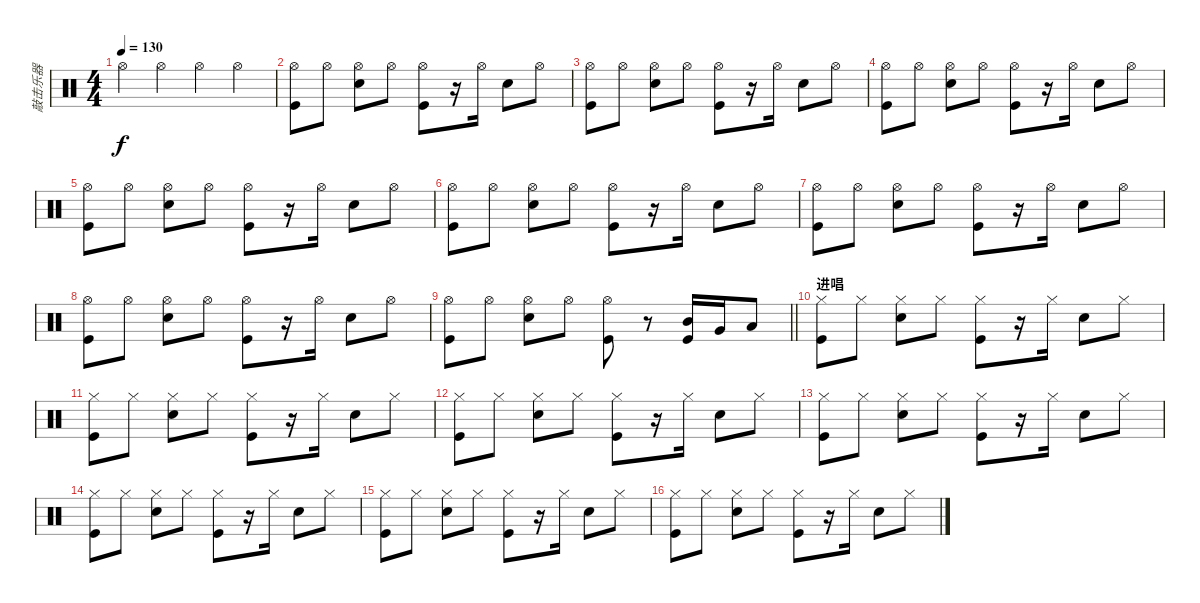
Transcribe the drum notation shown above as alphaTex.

\track ("敲击乐器" "敲击乐器") {instrument percussion}
\staff {score}
\articulation defaults
\ts (4 4)
\tempo 130
\clef neutral
\ks c "Hi-Hat (open)".4{dy f} "Hi-Hat (open)".4 "Hi-Hat (open)".4 "Hi-Hat (open)".4
|
("Hi-Hat (open)" "Kick (hit)").8 "Hi-Hat (open)".8 ("Hi-Hat (open)" "Snare (hit) 2").8 "Hi-Hat (open)".8 ("Hi-Hat (open)" "Kick (hit)").8 r.16 "Hi-Hat (open)".16 "Snare (hit) 2".8 "Hi-Hat (open)".8 |
("Hi-Hat (open)" "Kick (hit)").8 "Hi-Hat (open)".8 ("Hi-Hat (open)" "Snare (hit) 2").8 "Hi-Hat (open)".8 ("Hi-Hat (open)" "Kick (hit)").8 r.16 "Hi-Hat (open)".16 "Snare (hit) 2".8 "Hi-Hat (open)".8 |
("Hi-Hat (open)" "Kick (hit)").8 "Hi-Hat (open)".8 ("Hi-Hat (open)" "Snare (hit) 2").8 "Hi-Hat (open)".8 ("Hi-Hat (open)" "Kick (hit)").8 r.16 "Hi-Hat (open)".16 "Snare (hit) 2".8 "Hi-Hat (open)".8 |
("Hi-Hat (open)" "Kick (hit)").8 "Hi-Hat (open)".8 ("Hi-Hat (open)" "Snare (hit) 2").8 "Hi-Hat (open)".8 ("Hi-Hat (open)" "Kick (hit)").8 r.16 "Hi-Hat (open)".16 "Snare (hit) 2".8 "Hi-Hat (open)".8 |
("Hi-Hat (open)" "Kick (hit)").8 "Hi-Hat (open)".8 ("Hi-Hat (open)" "Snare (hit) 2").8 "Hi-Hat (open)".8 ("Hi-Hat (open)" "Kick (hit)").8 r.16 "Hi-Hat (open)".16 "Snare (hit) 2".8 "Hi-Hat (open)".8 |
("Hi-Hat (open)" "Kick (hit)").8 "Hi-Hat (open)".8 ("Hi-Hat (open)" "Snare (hit) 2").8 "Hi-Hat (open)".8 ("Hi-Hat (open)" "Kick (hit)").8 r.16 "Hi-Hat (open)".16 "Snare (hit) 2".8 "Hi-Hat (open)".8 |
("Hi-Hat (open)" "Kick (hit)").8 "Hi-Hat (open)".8 ("Hi-Hat (open)" "Snare (hit) 2").8 "Hi-Hat (open)".8 ("Hi-Hat (open)" "Kick (hit)").8 r.16 "Hi-Hat (open)".16 "Snare (hit) 2".8 "Hi-Hat (open)".8 |
\barLineRight lightlight
("Hi-Hat (open)" "Kick (hit)").8 "Hi-Hat (open)".8 ("Hi-Hat (open)" "Snare (hit) 2").8 "Hi-Hat (open)".8 ("Hi-Hat (open)" "Kick (hit)").8 r.8 ("Mid Tom (hit)" "Kick (hit)").16 "Very Low Tom (hit)".16 "Low Floor Tom (hit)".8 |
\section ("" "进唱")
("Hi-Hat (closed)" "Kick (hit)").8 "Hi-Hat (closed)".8 ("Hi-Hat (closed)" "Snare (hit) 2").8 "Hi-Hat (closed)".8 ("Hi-Hat (closed)" "Kick (hit)").8 r.16 "Hi-Hat (closed)".16 "Snare (hit) 2".8 "Hi-Hat (closed)".8 |
("Hi-Hat (closed)" "Kick (hit)").8 "Hi-Hat (closed)".8 ("Hi-Hat (closed)" "Snare (hit) 2").8 "Hi-Hat (closed)".8 ("Hi-Hat (closed)" "Kick (hit)").8 r.16 "Hi-Hat (closed)".16 "Snare (hit) 2".8 "Hi-Hat (closed)".8 |
("Hi-Hat (closed)" "Kick (hit)").8 "Hi-Hat (closed)".8 ("Hi-Hat (closed)" "Snare (hit) 2").8 "Hi-Hat (closed)".8 ("Hi-Hat (closed)" "Kick (hit)").8 r.16 "Hi-Hat (closed)".16 "Snare (hit) 2".8 "Hi-Hat (closed)".8 |
("Hi-Hat (closed)" "Kick (hit)").8 "Hi-Hat (closed)".8 ("Hi-Hat (closed)" "Snare (hit) 2").8 "Hi-Hat (closed)".8 ("Hi-Hat (closed)" "Kick (hit)").8 r.16 "Hi-Hat (closed)".16 "Snare (hit) 2".8 "Hi-Hat (closed)".8 |
("Hi-Hat (closed)" "Kick (hit)").8 "Hi-Hat (closed)".8 ("Hi-Hat (closed)" "Snare (hit) 2").8 "Hi-Hat (closed)".8 ("Hi-Hat (closed)" "Kick (hit)").8 r.16 "Hi-Hat (closed)".16 "Snare (hit) 2".8 "Hi-Hat (closed)".8 |
("Hi-Hat (closed)" "Kick (hit)").8 "Hi-Hat (closed)".8 ("Hi-Hat (closed)" "Snare (hit) 2").8 "Hi-Hat (closed)".8 ("Hi-Hat (closed)" "Kick (hit)").8 r.16 "Hi-Hat (closed)".16 "Snare (hit) 2".8 "Hi-Hat (closed)".8 |
("Hi-Hat (closed)" "Kick (hit)").8 "Hi-Hat (closed)".8 ("Hi-Hat (closed)" "Snare (hit) 2").8 "Hi-Hat (closed)".8 ("Hi-Hat (closed)" "Kick (hit)").8 r.16 "Hi-Hat (closed)".16 "Snare (hit) 2".8 "Hi-Hat (closed)".8
